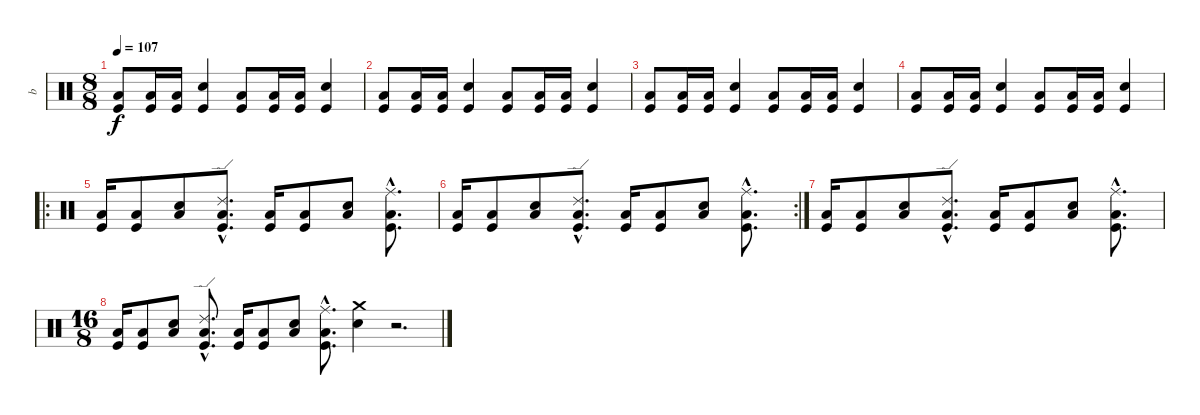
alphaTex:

\track ("b" "b") {instrument percussion}
\staff {score}
\articulation defaults
\ts (8 8)
\tempo 107
\clef neutral
\ks c
("Kick (hit)" "Low Tom (hit)").8{dy f} ("Kick (hit)" "Low Tom (hit)").16 ("Kick (hit)" "Low Tom (hit)").16 ("Electric Snare (hit)" "Kick (hit)").4 ("Kick (hit)" "Low Tom (hit)").8 ("Kick (hit)" "Low Tom (hit)").16 ("Kick (hit)" "Low Tom (hit)").16 ("Electric Snare (hit)" "Kick (hit)").4 |
("Kick (hit)" "Low Tom (hit)").8 ("Kick (hit)" "Low Tom (hit)").16 ("Kick (hit)" "Low Tom (hit)").16 ("Electric Snare (hit)" "Kick (hit)").4 ("Kick (hit)" "Low Tom (hit)").8 ("Kick (hit)" "Low Tom (hit)").16 ("Kick (hit)" "Low Tom (hit)").16 ("Electric Snare (hit)" "Kick (hit)").4 |
("Kick (hit)" "Low Tom (hit)").8 ("Kick (hit)" "Low Tom (hit)").16 ("Kick (hit)" "Low Tom (hit)").16 ("Electric Snare (hit)" "Kick (hit)").4 ("Kick (hit)" "Low Tom (hit)").8 ("Kick (hit)" "Low Tom (hit)").16 ("Kick (hit)" "Low Tom (hit)").16 ("Electric Snare (hit)" "Kick (hit)").4 |
("Kick (hit)" "Low Tom (hit)").8 ("Kick (hit)" "Low Tom (hit)").16 ("Kick (hit)" "Low Tom (hit)").16 ("Electric Snare (hit)" "Kick (hit)").4 ("Kick (hit)" "Low Tom (hit)").8 ("Kick (hit)" "Low Tom (hit)").16 ("Kick (hit)" "Low Tom (hit)").16 ("Electric Snare (hit)" "Kick (hit)").4 |
\ro
("Kick (hit)" "Low Tom (hit)").16 ("Kick (hit)" "Low Tom (hit)").8 ("Electric Snare (hit)" "Low Tom (hit)").8 ("Kick (hit)"{hac} "Ride (edge) 2"{hac} "Low Tom (hit)"{hac}).8{d} ("Kick (hit)" "Low Tom (hit)").16 ("Kick (hit)" "Low Tom (hit)").8 ("Electric Snare (hit)" "Low Tom (hit)").8 ("Kick (hit)"{hac} "Ride (middle)"{hac} "Low Tom (hit)"{hac}).8{d} |
\rc 2
("Kick (hit)" "Low Tom (hit)").16 ("Kick (hit)" "Low Tom (hit)").8 ("Electric Snare (hit)" "Low Tom (hit)").8 ("Kick (hit)"{hac} "Ride (edge) 2"{hac} "Low Tom (hit)"{hac}).8{d} ("Kick (hit)" "Low Tom (hit)").16 ("Kick (hit)" "Low Tom (hit)").8 ("Electric Snare (hit)" "Low Tom (hit)").8 ("Kick (hit)"{hac} "Ride (middle)"{hac} "Low Tom (hit)"{hac}).8{d} |
("Kick (hit)" "Low Tom (hit)").16 ("Kick (hit)" "Low Tom (hit)").8 ("Electric Snare (hit)" "Low Tom (hit)").8 ("Kick (hit)"{hac} "Ride (edge) 2"{hac} "Low Tom (hit)"{hac}).8{d} ("Kick (hit)" "Low Tom (hit)").16 ("Kick (hit)" "Low Tom (hit)").8 ("Electric Snare (hit)" "Low Tom (hit)").8 ("Kick (hit)"{hac} "Ride (middle)"{hac} "Low Tom (hit)"{hac}).8{d} |
\ts (16 8)
("Kick (hit)" "Low Tom (hit)").16 ("Kick (hit)" "Low Tom (hit)").8 ("Electric Snare (hit)" "Low Tom (hit)").8 ("Kick (hit)"{hac} "Ride (edge) 2"{hac} "Low Tom (hit)"{hac}).8{d} ("Kick (hit)" "Low Tom (hit)").16 ("Kick (hit)" "Low Tom (hit)").8 ("Electric Snare (hit)" "Low Tom (hit)").8 ("Kick (hit)"{hac} "Ride (middle)"{hac} "Low Tom (hit)"{hac}).8{d} ("Electric Snare (hit)" "Crash medium (hit)").4 r.2{d}
